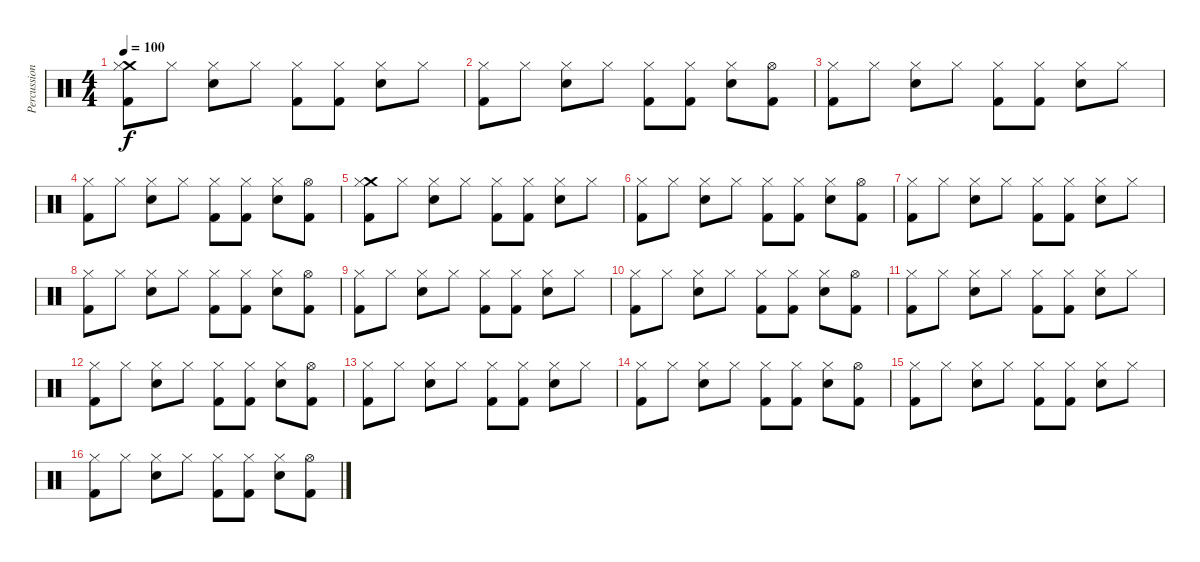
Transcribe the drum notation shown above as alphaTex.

\track ("Percussion" "Percussion") {instrument percussion}
\staff {score}
\articulation defaults
\ts (4 4)
\tempo 100
\clef neutral
\ks c
("Crash medium (hit)" "Kick (hit) 2" "Hi-Hat (closed)").8{dy f} "Hi-Hat (closed)".8 ("Snare (hit) 2" "Hi-Hat (closed)").8 "Hi-Hat (closed)".8 ("Kick (hit) 2" "Hi-Hat (closed)").8 ("Kick (hit) 2" "Hi-Hat (closed)").8 ("Snare (hit) 2" "Hi-Hat (closed)").8 "Hi-Hat (closed)".8 |
("Kick (hit) 2" "Hi-Hat (closed)").8 "Hi-Hat (closed)".8 ("Snare (hit) 2" "Hi-Hat (closed)").8 "Hi-Hat (closed)".8 ("Kick (hit) 2" "Hi-Hat (closed)").8 ("Kick (hit) 2" "Hi-Hat (closed)").8 ("Snare (hit) 2" "Hi-Hat (closed)").8 ("Kick (hit) 2" "Hi-Hat (open)").8 |
("Kick (hit) 2" "Hi-Hat (closed)").8 "Hi-Hat (closed)".8 ("Snare (hit) 2" "Hi-Hat (closed)").8 "Hi-Hat (closed)".8 ("Kick (hit) 2" "Hi-Hat (closed)").8 ("Kick (hit) 2" "Hi-Hat (closed)").8 ("Snare (hit) 2" "Hi-Hat (closed)").8 "Hi-Hat (closed)".8 |
("Kick (hit) 2" "Hi-Hat (closed)").8 "Hi-Hat (closed)".8 ("Snare (hit) 2" "Hi-Hat (closed)").8 "Hi-Hat (closed)".8 ("Kick (hit) 2" "Hi-Hat (closed)").8 ("Kick (hit) 2" "Hi-Hat (closed)").8 ("Snare (hit) 2" "Hi-Hat (closed)").8 ("Kick (hit) 2" "Hi-Hat (open)").8 |
("Crash medium (hit)" "Kick (hit) 2" "Hi-Hat (closed)").8 "Hi-Hat (closed)".8 ("Snare (hit) 2" "Hi-Hat (closed)").8 "Hi-Hat (closed)".8 ("Kick (hit) 2" "Hi-Hat (closed)").8 ("Kick (hit) 2" "Hi-Hat (closed)").8 ("Snare (hit) 2" "Hi-Hat (closed)").8 "Hi-Hat (closed)".8 |
("Kick (hit) 2" "Hi-Hat (closed)").8 "Hi-Hat (closed)".8 ("Snare (hit) 2" "Hi-Hat (closed)").8 "Hi-Hat (closed)".8 ("Kick (hit) 2" "Hi-Hat (closed)").8 ("Kick (hit) 2" "Hi-Hat (closed)").8 ("Snare (hit) 2" "Hi-Hat (closed)").8 ("Kick (hit) 2" "Hi-Hat (open)").8 |
("Kick (hit) 2" "Hi-Hat (closed)").8 "Hi-Hat (closed)".8 ("Snare (hit) 2" "Hi-Hat (closed)").8 "Hi-Hat (closed)".8 ("Kick (hit) 2" "Hi-Hat (closed)").8 ("Kick (hit) 2" "Hi-Hat (closed)").8 ("Snare (hit) 2" "Hi-Hat (closed)").8 "Hi-Hat (closed)".8 |
("Kick (hit) 2" "Hi-Hat (closed)").8 "Hi-Hat (closed)".8 ("Snare (hit) 2" "Hi-Hat (closed)").8 "Hi-Hat (closed)".8 ("Kick (hit) 2" "Hi-Hat (closed)").8 ("Kick (hit) 2" "Hi-Hat (closed)").8 ("Snare (hit) 2" "Hi-Hat (closed)").8 ("Kick (hit) 2" "Hi-Hat (open)").8 |
("Kick (hit) 2" "Hi-Hat (closed)").8 "Hi-Hat (closed)".8 ("Snare (hit) 2" "Hi-Hat (closed)").8 "Hi-Hat (closed)".8 ("Kick (hit) 2" "Hi-Hat (closed)").8 ("Kick (hit) 2" "Hi-Hat (closed)").8 ("Snare (hit) 2" "Hi-Hat (closed)").8 "Hi-Hat (closed)".8 |
("Kick (hit) 2" "Hi-Hat (closed)").8 "Hi-Hat (closed)".8 ("Snare (hit) 2" "Hi-Hat (closed)").8 "Hi-Hat (closed)".8 ("Kick (hit) 2" "Hi-Hat (closed)").8 ("Kick (hit) 2" "Hi-Hat (closed)").8 ("Snare (hit) 2" "Hi-Hat (closed)").8 ("Kick (hit) 2" "Hi-Hat (open)").8 |
("Kick (hit) 2" "Hi-Hat (closed)").8 "Hi-Hat (closed)".8 ("Snare (hit) 2" "Hi-Hat (closed)").8 "Hi-Hat (closed)".8 ("Kick (hit) 2" "Hi-Hat (closed)").8 ("Kick (hit) 2" "Hi-Hat (closed)").8 ("Snare (hit) 2" "Hi-Hat (closed)").8 "Hi-Hat (closed)".8 |
("Kick (hit) 2" "Hi-Hat (closed)").8 "Hi-Hat (closed)".8 ("Snare (hit) 2" "Hi-Hat (closed)").8 "Hi-Hat (closed)".8 ("Kick (hit) 2" "Hi-Hat (closed)").8 ("Kick (hit) 2" "Hi-Hat (closed)").8 ("Snare (hit) 2" "Hi-Hat (closed)").8 ("Kick (hit) 2" "Hi-Hat (open)").8 |
("Kick (hit) 2" "Hi-Hat (closed)").8 "Hi-Hat (closed)".8 ("Snare (hit) 2" "Hi-Hat (closed)").8 "Hi-Hat (closed)".8 ("Kick (hit) 2" "Hi-Hat (closed)").8 ("Kick (hit) 2" "Hi-Hat (closed)").8 ("Snare (hit) 2" "Hi-Hat (closed)").8 "Hi-Hat (closed)".8 |
("Kick (hit) 2" "Hi-Hat (closed)").8 "Hi-Hat (closed)".8 ("Snare (hit) 2" "Hi-Hat (closed)").8 "Hi-Hat (closed)".8 ("Kick (hit) 2" "Hi-Hat (closed)").8 ("Kick (hit) 2" "Hi-Hat (closed)").8 ("Snare (hit) 2" "Hi-Hat (closed)").8 ("Kick (hit) 2" "Hi-Hat (open)").8 |
("Kick (hit) 2" "Hi-Hat (closed)").8 "Hi-Hat (closed)".8 ("Snare (hit) 2" "Hi-Hat (closed)").8 "Hi-Hat (closed)".8 ("Kick (hit) 2" "Hi-Hat (closed)").8 ("Kick (hit) 2" "Hi-Hat (closed)").8 ("Snare (hit) 2" "Hi-Hat (closed)").8 "Hi-Hat (closed)".8 |
("Kick (hit) 2" "Hi-Hat (closed)").8 "Hi-Hat (closed)".8 ("Snare (hit) 2" "Hi-Hat (closed)").8 "Hi-Hat (closed)".8 ("Kick (hit) 2" "Hi-Hat (closed)").8 ("Kick (hit) 2" "Hi-Hat (closed)").8 ("Snare (hit) 2" "Hi-Hat (closed)").8 ("Kick (hit) 2" "Hi-Hat (open)").8
